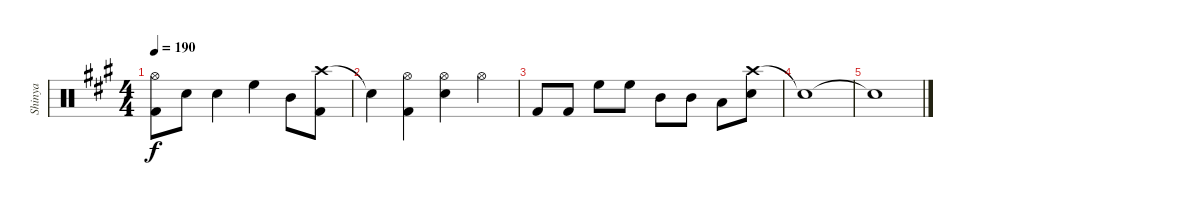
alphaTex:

\track ("Shinya" "Shinya") {instrument percussion}
\staff {score}
\articulation defaults
\ts (4 4)
\tempo 190
\clef neutral
\ks a
("Hi-Hat (open)" "Kick (hit) 2").8{dy f} "Snare (hit) 2".8 "Snare (hit) 2".4 "High Floor Tom (hit)".4 "Mid Tom (hit)".8 ("Crash high (hit)" "Kick (hit) 2").8 |
"Snare (hit)"{t}.4 ("Hi-Hat (open)" "Kick (hit) 2").4 ("Hi-Hat (open)" "Snare (hit) 2").4 "Hi-Hat (open)".4 |
"Kick (hit) 2".8 "Kick (hit) 2".8 "High Floor Tom (hit)".8 "High Floor Tom (hit)".8 "Mid Tom (hit)".8 "Mid Tom (hit)".8 "Low Tom (hit)".8 ("Crash high (hit)" "Snare (hit) 2").8 |
"Snare (hit)"{t}.1 |
"Snare (hit)"{t}.1
